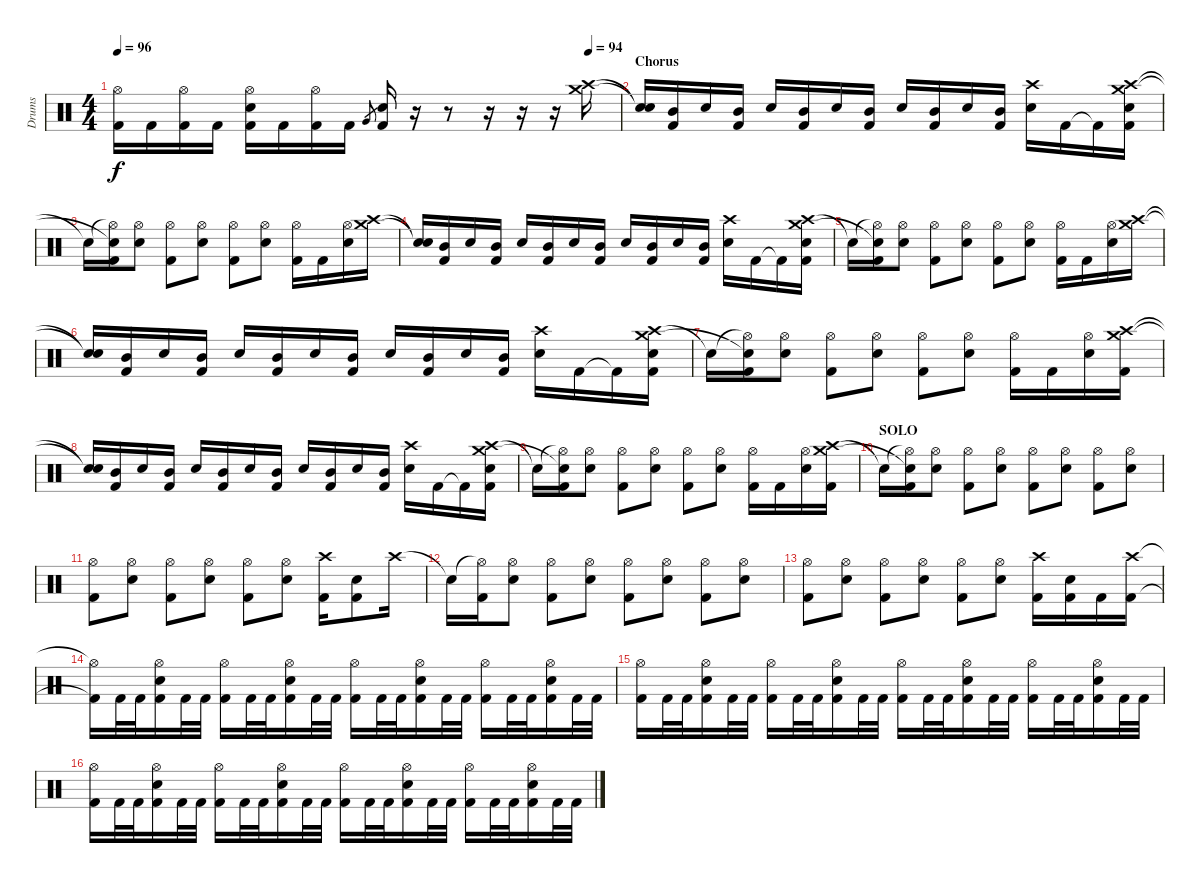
\track ("Drums" "Drums") {instrument percussion}
\staff {score}
\articulation defaults
\ts (4 4)
\tempo 96
\tempo (94 0.9375)
\clef neutral
\ks c
("Hi-Hat (open)" "Kick (hit) 2").16{dy f} "Kick (hit) 2".16 ("Hi-Hat (open)" "Kick (hit) 2").16 "Kick (hit) 2".16 ("Hi-Hat (open)" "Electric Snare (hit)" "Kick (hit) 2").16 "Kick (hit) 2".16 ("Hi-Hat (open)" "Kick (hit) 2").16 "Kick (hit) 2".16 "Very Low Tom (hit)".8{gr} ("Electric Snare (hit)" "Kick (hit) 2").16 r.16 r.8 r.16 r.16 r.16 ("Crash high (hit)" "Crash medium (hit)").16 |
\section ("" "Chorus")
("Snare (hit)"{t} "Snare (hit)"{t}).16 ("Mid Tom (hit)" "Kick (hit) 2").16 "Electric Snare (hit)".16 ("Mid Tom (hit)" "Kick (hit) 2").16 "Electric Snare (hit)".16 ("Mid Tom (hit)" "Kick (hit) 2").16 "Electric Snare (hit)".16 ("Mid Tom (hit)" "Kick (hit) 2").16 "Electric Snare (hit)".16 ("Mid Tom (hit)" "Kick (hit) 2").16 "Electric Snare (hit)".16 ("Mid Tom (hit)" "Kick (hit) 2").16 ("Crash high (hit)" "Electric Snare (hit)").16 "Kick (hit) 2".16 "Kick (hit) 2"{t}.16 ("Crash high (hit)" "Crash medium (hit)" "Electric Snare (hit)" "Kick (hit) 2").16 |
"Snare (hit)"{t}.16 ("Hi-Hat (open)"{t} "Snare (hit)"{t} "Kick (hit) 2").16 ("Hi-Hat (open)" "Electric Snare (hit)").8 ("Hi-Hat (open)" "Kick (hit) 2").8 ("Hi-Hat (open)" "Electric Snare (hit)").8 ("Hi-Hat (open)" "Kick (hit) 2").8 ("Hi-Hat (open)" "Electric Snare (hit)").8 ("Hi-Hat (open)" "Kick (hit) 2").16 "Kick (hit) 2".16 ("Hi-Hat (open)" "Electric Snare (hit)").16 ("Crash high (hit)" "Crash medium (hit)").16 |
("Snare (hit)"{t} "Snare (hit)"{t}).16 ("Mid Tom (hit)" "Kick (hit) 2").16 "Electric Snare (hit)".16 ("Mid Tom (hit)" "Kick (hit) 2").16 "Electric Snare (hit)".16 ("Mid Tom (hit)" "Kick (hit) 2").16 "Electric Snare (hit)".16 ("Mid Tom (hit)" "Kick (hit) 2").16 "Electric Snare (hit)".16 ("Mid Tom (hit)" "Kick (hit) 2").16 "Electric Snare (hit)".16 ("Mid Tom (hit)" "Kick (hit) 2").16 ("Crash high (hit)" "Electric Snare (hit)").16 "Kick (hit) 2".16 "Kick (hit) 2"{t}.16 ("Crash high (hit)" "Crash medium (hit)" "Electric Snare (hit)" "Kick (hit) 2").16 |
"Snare (hit)"{t}.16 ("Hi-Hat (open)"{t} "Snare (hit)"{t} "Kick (hit) 2").16 ("Hi-Hat (open)" "Electric Snare (hit)").8 ("Hi-Hat (open)" "Kick (hit) 2").8 ("Hi-Hat (open)" "Electric Snare (hit)").8 ("Hi-Hat (open)" "Kick (hit) 2").8 ("Hi-Hat (open)" "Electric Snare (hit)").8 ("Hi-Hat (open)" "Kick (hit) 2").16 "Kick (hit) 2".16 ("Hi-Hat (open)" "Electric Snare (hit)").16 ("Crash high (hit)" "Crash medium (hit)").16 |
("Snare (hit)"{t} "Snare (hit)"{t}).16 ("Mid Tom (hit)" "Kick (hit) 2").16 "Electric Snare (hit)".16 ("Mid Tom (hit)" "Kick (hit) 2").16 "Electric Snare (hit)".16 ("Mid Tom (hit)" "Kick (hit) 2").16 "Electric Snare (hit)".16 ("Mid Tom (hit)" "Kick (hit) 2").16 "Electric Snare (hit)".16 ("Mid Tom (hit)" "Kick (hit) 2").16 "Electric Snare (hit)".16 ("Mid Tom (hit)" "Kick (hit) 2").16 ("Crash high (hit)" "Electric Snare (hit)").16 "Kick (hit) 2".16 "Kick (hit) 2"{t}.16 ("Crash high (hit)" "Crash medium (hit)" "Electric Snare (hit)" "Kick (hit) 2").16 |
"Snare (hit)"{t}.16 ("Hi-Hat (open)"{t} "Snare (hit)"{t} "Kick (hit) 2").16 ("Hi-Hat (open)" "Electric Snare (hit)").8 ("Hi-Hat (open)" "Kick (hit) 2").8 ("Hi-Hat (open)" "Electric Snare (hit)").8 ("Hi-Hat (open)" "Kick (hit) 2").8 ("Hi-Hat (open)" "Electric Snare (hit)").8 ("Hi-Hat (open)" "Kick (hit) 2").16 "Kick (hit) 2".16 ("Hi-Hat (open)" "Electric Snare (hit)").16 ("Crash high (hit)" "Crash medium (hit)" "Kick (hit) 2").16 |
("Snare (hit)"{t} "Snare (hit)"{t}).16 ("Mid Tom (hit)" "Kick (hit) 2").16 "Electric Snare (hit)".16 ("Mid Tom (hit)" "Kick (hit) 2").16 "Electric Snare (hit)".16 ("Mid Tom (hit)" "Kick (hit) 2").16 "Electric Snare (hit)".16 ("Mid Tom (hit)" "Kick (hit) 2").16 "Electric Snare (hit)".16 ("Mid Tom (hit)" "Kick (hit) 2").16 "Electric Snare (hit)".16 ("Mid Tom (hit)" "Kick (hit) 2").16 ("Crash high (hit)" "Electric Snare (hit)").16 "Kick (hit) 2".16 "Kick (hit) 2"{t}.16 ("Crash high (hit)" "Crash medium (hit)" "Electric Snare (hit)" "Kick (hit) 2").16 |
"Snare (hit)"{t}.16 ("Hi-Hat (open)"{t} "Snare (hit)"{t} "Kick (hit) 2").16 ("Hi-Hat (open)" "Electric Snare (hit)").8 ("Hi-Hat (open)" "Kick (hit) 2").8 ("Hi-Hat (open)" "Electric Snare (hit)").8 ("Hi-Hat (open)" "Kick (hit) 2").8 ("Hi-Hat (open)" "Electric Snare (hit)").8 ("Hi-Hat (open)" "Kick (hit) 2").16 "Kick (hit) 2".16 ("Hi-Hat (open)" "Electric Snare (hit)").16 ("Crash high (hit)" "Crash medium (hit)" "Kick (hit) 2").16 |
\section ("" "SOLO")
"Snare (hit)"{t}.16 ("Hi-Hat (open)"{t} "Snare (hit)"{t} "Kick (hit) 2").16 ("Hi-Hat (open)" "Electric Snare (hit)").8 ("Hi-Hat (open)" "Kick (hit) 2").8 ("Hi-Hat (open)" "Electric Snare (hit)").8 ("Hi-Hat (open)" "Kick (hit) 2").8 ("Hi-Hat (open)" "Electric Snare (hit)").8 ("Hi-Hat (open)" "Kick (hit) 2").8 ("Hi-Hat (open)" "Electric Snare (hit)").8 |
("Hi-Hat (open)" "Kick (hit) 2").8 ("Hi-Hat (open)" "Electric Snare (hit)").8 ("Hi-Hat (open)" "Kick (hit) 2").8 ("Hi-Hat (open)" "Electric Snare (hit)").8 ("Hi-Hat (open)" "Kick (hit) 2").8 ("Hi-Hat (open)" "Electric Snare (hit)").8 ("Crash high (hit)" "Kick (hit) 2").16 ("Electric Snare (hit)" "Kick (hit) 2").8 "Crash high (hit)".16 |
"Snare (hit)"{t}.16 ("Hi-Hat (open)"{t} "Kick (hit) 2").16 ("Hi-Hat (open)" "Electric Snare (hit)").8 ("Hi-Hat (open)" "Kick (hit) 2").8 ("Hi-Hat (open)" "Electric Snare (hit)").8 ("Hi-Hat (open)" "Kick (hit) 2").8 ("Hi-Hat (open)" "Electric Snare (hit)").8 ("Hi-Hat (open)" "Kick (hit) 2").8 ("Hi-Hat (open)" "Electric Snare (hit)").8 |
("Hi-Hat (open)" "Kick (hit) 2").8 ("Hi-Hat (open)" "Electric Snare (hit)").8 ("Hi-Hat (open)" "Kick (hit) 2").8 ("Hi-Hat (open)" "Electric Snare (hit)").8 ("Hi-Hat (open)" "Kick (hit) 2").8 ("Hi-Hat (open)" "Electric Snare (hit)").8 ("Crash high (hit)" "Kick (hit) 2").16 ("Electric Snare (hit)" "Kick (hit) 2").16 "Kick (hit) 2".16 ("Crash high (hit)" "Kick (hit) 2").16 |
("Hi-Hat (open)"{t} "Kick (hit) 2"{t}).16 "Kick (hit) 2".32 "Kick (hit) 2".32 ("Hi-Hat (open)" "Electric Snare (hit)" "Kick (hit) 2").16 "Kick (hit) 2".32 "Kick (hit) 2".32 ("Hi-Hat (open)" "Kick (hit) 2").16 "Kick (hit) 2".32 "Kick (hit) 2".32 ("Hi-Hat (open)" "Electric Snare (hit)" "Kick (hit) 2").16 "Kick (hit) 2".32 "Kick (hit) 2".32 ("Hi-Hat (open)" "Kick (hit) 2").16 "Kick (hit) 2".32 "Kick (hit) 2".32 ("Hi-Hat (open)" "Electric Snare (hit)" "Kick (hit) 2").16 "Kick (hit) 2".32 "Kick (hit) 2".32 ("Hi-Hat (open)" "Kick (hit) 2").16 "Kick (hit) 2".32 "Kick (hit) 2".32 ("Hi-Hat (open)" "Electric Snare (hit)" "Kick (hit) 2").16 "Kick (hit) 2".32 "Kick (hit) 2".32 |
("Hi-Hat (open)" "Kick (hit) 2").16 "Kick (hit) 2".32 "Kick (hit) 2".32 ("Hi-Hat (open)" "Electric Snare (hit)" "Kick (hit) 2").16 "Kick (hit) 2".32 "Kick (hit) 2".32 ("Hi-Hat (open)" "Kick (hit) 2").16 "Kick (hit) 2".32 "Kick (hit) 2".32 ("Hi-Hat (open)" "Electric Snare (hit)" "Kick (hit) 2").16 "Kick (hit) 2".32 "Kick (hit) 2".32 ("Hi-Hat (open)" "Kick (hit) 2").16 "Kick (hit) 2".32 "Kick (hit) 2".32 ("Hi-Hat (open)" "Electric Snare (hit)" "Kick (hit) 2").16 "Kick (hit) 2".32 "Kick (hit) 2".32 ("Hi-Hat (open)" "Kick (hit) 2").16 "Kick (hit) 2".32 "Kick (hit) 2".32 ("Hi-Hat (open)" "Electric Snare (hit)" "Kick (hit) 2").16 "Kick (hit) 2".32 "Kick (hit) 2".32 |
("Hi-Hat (open)" "Kick (hit) 2").16 "Kick (hit) 2".32 "Kick (hit) 2".32 ("Hi-Hat (open)" "Electric Snare (hit)" "Kick (hit) 2").16 "Kick (hit) 2".32 "Kick (hit) 2".32 ("Hi-Hat (open)" "Kick (hit) 2").16 "Kick (hit) 2".32 "Kick (hit) 2".32 ("Hi-Hat (open)" "Electric Snare (hit)" "Kick (hit) 2").16 "Kick (hit) 2".32 "Kick (hit) 2".32 ("Hi-Hat (open)" "Kick (hit) 2").16 "Kick (hit) 2".32 "Kick (hit) 2".32 ("Hi-Hat (open)" "Electric Snare (hit)" "Kick (hit) 2").16 "Kick (hit) 2".32 "Kick (hit) 2".32 ("Hi-Hat (open)" "Kick (hit) 2").16 "Kick (hit) 2".32 "Kick (hit) 2".32 ("Hi-Hat (open)" "Electric Snare (hit)" "Kick (hit) 2").16 "Kick (hit) 2".32 "Kick (hit) 2".32
